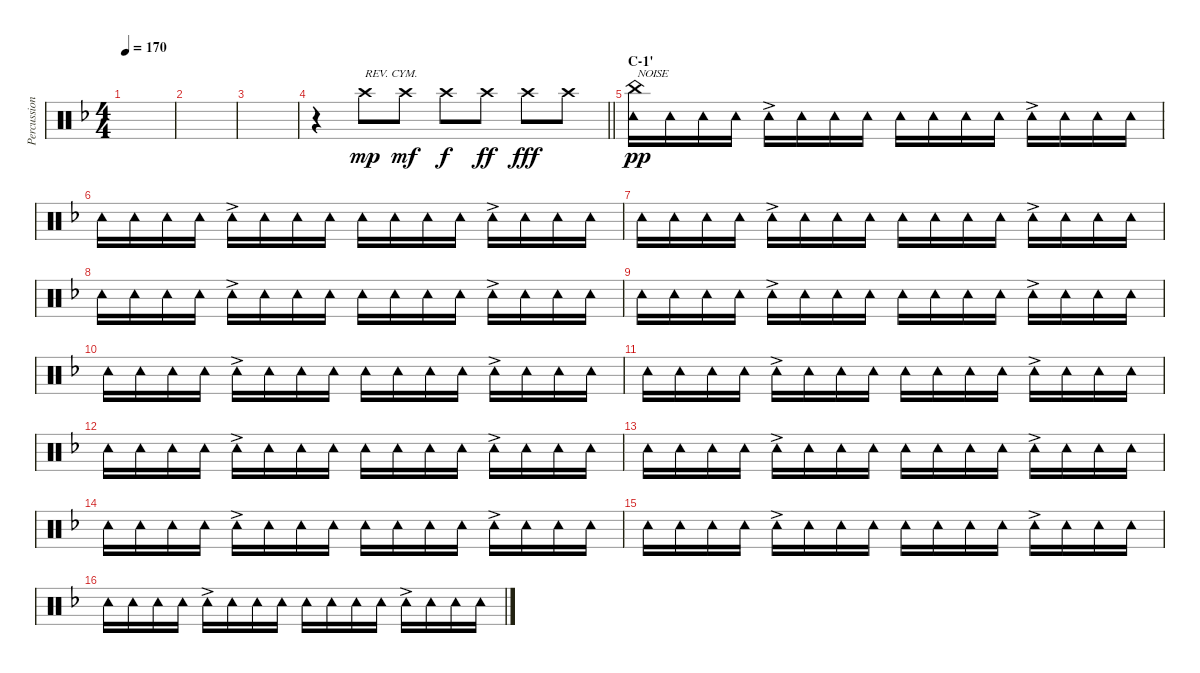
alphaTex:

\track ("Percussion (Tainaka Ritsu)" "Percussion") {instrument percussion}
\staff {score}
\articulation defaults
\ts (4 4)
\tempo 170
\clef neutral
\ks f
|
|
|
\barLineRight lightlight
r.4{volume 0} "Crash high (hit)".8{txt "REV. CYM." dy mp volume 13} "Crash high (hit)".8{dy mf} "Crash high (hit)".8{dy f} "Crash high (hit)".8{dy ff} "Crash high (hit)".8{dy fff} "Crash high (hit)".8 |
\section ("" "C-1'")
("China (hit)" "Tambourine (hit)").16{txt "NOISE" dy pp} "Tambourine (hit)".16 "Tambourine (hit)".16 "Tambourine (hit)".16 "Tambourine (hit)"{ac}.16 "Tambourine (hit)".16 "Tambourine (hit)".16 "Tambourine (hit)".16 "Tambourine (hit)".16 "Tambourine (hit)".16 "Tambourine (hit)".16 "Tambourine (hit)".16 "Tambourine (hit)"{ac}.16 "Tambourine (hit)".16 "Tambourine (hit)".16 "Tambourine (hit)".16 |
"Tambourine (hit)".16 "Tambourine (hit)".16 "Tambourine (hit)".16 "Tambourine (hit)".16 "Tambourine (hit)"{ac}.16 "Tambourine (hit)".16 "Tambourine (hit)".16 "Tambourine (hit)".16 "Tambourine (hit)".16 "Tambourine (hit)".16 "Tambourine (hit)".16 "Tambourine (hit)".16 "Tambourine (hit)"{ac}.16 "Tambourine (hit)".16 "Tambourine (hit)".16 "Tambourine (hit)".16 |
"Tambourine (hit)".16 "Tambourine (hit)".16 "Tambourine (hit)".16 "Tambourine (hit)".16 "Tambourine (hit)"{ac}.16 "Tambourine (hit)".16 "Tambourine (hit)".16 "Tambourine (hit)".16 "Tambourine (hit)".16 "Tambourine (hit)".16 "Tambourine (hit)".16 "Tambourine (hit)".16 "Tambourine (hit)"{ac}.16 "Tambourine (hit)".16 "Tambourine (hit)".16 "Tambourine (hit)".16 |
"Tambourine (hit)".16 "Tambourine (hit)".16 "Tambourine (hit)".16 "Tambourine (hit)".16 "Tambourine (hit)"{ac}.16 "Tambourine (hit)".16 "Tambourine (hit)".16 "Tambourine (hit)".16 "Tambourine (hit)".16 "Tambourine (hit)".16 "Tambourine (hit)".16 "Tambourine (hit)".16 "Tambourine (hit)"{ac}.16 "Tambourine (hit)".16 "Tambourine (hit)".16 "Tambourine (hit)".16 |
"Tambourine (hit)".16 "Tambourine (hit)".16 "Tambourine (hit)".16 "Tambourine (hit)".16 "Tambourine (hit)"{ac}.16 "Tambourine (hit)".16 "Tambourine (hit)".16 "Tambourine (hit)".16 "Tambourine (hit)".16 "Tambourine (hit)".16 "Tambourine (hit)".16 "Tambourine (hit)".16 "Tambourine (hit)"{ac}.16 "Tambourine (hit)".16 "Tambourine (hit)".16 "Tambourine (hit)".16 |
"Tambourine (hit)".16 "Tambourine (hit)".16 "Tambourine (hit)".16 "Tambourine (hit)".16 "Tambourine (hit)"{ac}.16 "Tambourine (hit)".16 "Tambourine (hit)".16 "Tambourine (hit)".16 "Tambourine (hit)".16 "Tambourine (hit)".16 "Tambourine (hit)".16 "Tambourine (hit)".16 "Tambourine (hit)"{ac}.16 "Tambourine (hit)".16 "Tambourine (hit)".16 "Tambourine (hit)".16 |
"Tambourine (hit)".16 "Tambourine (hit)".16 "Tambourine (hit)".16 "Tambourine (hit)".16 "Tambourine (hit)"{ac}.16 "Tambourine (hit)".16 "Tambourine (hit)".16 "Tambourine (hit)".16 "Tambourine (hit)".16 "Tambourine (hit)".16 "Tambourine (hit)".16 "Tambourine (hit)".16 "Tambourine (hit)"{ac}.16 "Tambourine (hit)".16 "Tambourine (hit)".16 "Tambourine (hit)".16 |
"Tambourine (hit)".16 "Tambourine (hit)".16 "Tambourine (hit)".16 "Tambourine (hit)".16 "Tambourine (hit)"{ac}.16 "Tambourine (hit)".16 "Tambourine (hit)".16 "Tambourine (hit)".16 "Tambourine (hit)".16 "Tambourine (hit)".16 "Tambourine (hit)".16 "Tambourine (hit)".16 "Tambourine (hit)"{ac}.16 "Tambourine (hit)".16 "Tambourine (hit)".16 "Tambourine (hit)".16 |
"Tambourine (hit)".16 "Tambourine (hit)".16 "Tambourine (hit)".16 "Tambourine (hit)".16 "Tambourine (hit)"{ac}.16 "Tambourine (hit)".16 "Tambourine (hit)".16 "Tambourine (hit)".16 "Tambourine (hit)".16 "Tambourine (hit)".16 "Tambourine (hit)".16 "Tambourine (hit)".16 "Tambourine (hit)"{ac}.16 "Tambourine (hit)".16 "Tambourine (hit)".16 "Tambourine (hit)".16 |
"Tambourine (hit)".16 "Tambourine (hit)".16 "Tambourine (hit)".16 "Tambourine (hit)".16 "Tambourine (hit)"{ac}.16 "Tambourine (hit)".16 "Tambourine (hit)".16 "Tambourine (hit)".16 "Tambourine (hit)".16 "Tambourine (hit)".16 "Tambourine (hit)".16 "Tambourine (hit)".16 "Tambourine (hit)"{ac}.16 "Tambourine (hit)".16 "Tambourine (hit)".16 "Tambourine (hit)".16 |
"Tambourine (hit)".16 "Tambourine (hit)".16 "Tambourine (hit)".16 "Tambourine (hit)".16 "Tambourine (hit)"{ac}.16 "Tambourine (hit)".16 "Tambourine (hit)".16 "Tambourine (hit)".16 "Tambourine (hit)".16 "Tambourine (hit)".16 "Tambourine (hit)".16 "Tambourine (hit)".16 "Tambourine (hit)"{ac}.16 "Tambourine (hit)".16 "Tambourine (hit)".16 "Tambourine (hit)".16 |
"Tambourine (hit)".16 "Tambourine (hit)".16 "Tambourine (hit)".16 "Tambourine (hit)".16 "Tambourine (hit)"{ac}.16 "Tambourine (hit)".16 "Tambourine (hit)".16 "Tambourine (hit)".16 "Tambourine (hit)".16 "Tambourine (hit)".16 "Tambourine (hit)".16 "Tambourine (hit)".16 "Tambourine (hit)"{ac}.16 "Tambourine (hit)".16 "Tambourine (hit)".16 "Tambourine (hit)".16
